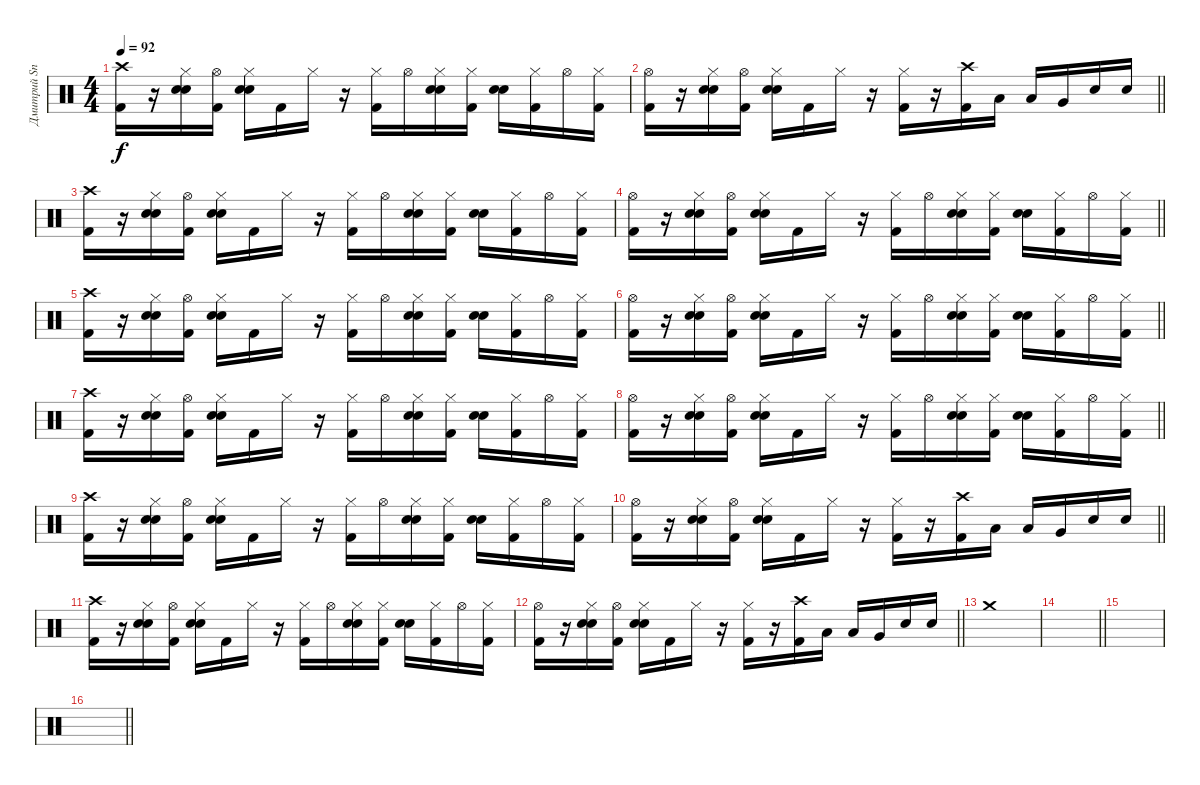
\track ("Дмитрий Snake Хакимов" "Дмитрий Sn") {instrument percussion}
\staff {score}
\articulation defaults
\ts (4 4)
\tempo 92
\clef neutral
\ks c
("Crash high (hit)" "Kick (hit) 2").16{dy f} r.16 ("Hi-Hat (closed)" "Snare (hit) 2" "Electric Snare (hit)").16 ("Hi-Hat (open)" "Kick (hit) 2").16 ("Hi-Hat (closed)" "Snare (hit) 2" "Electric Snare (hit)").16 "Kick (hit) 2".16 "Hi-Hat (closed)".16 r.16 ("Hi-Hat (closed)" "Kick (hit) 2").16 "Hi-Hat (open)".16 ("Hi-Hat (closed)" "Snare (hit) 2" "Electric Snare (hit)").16 ("Hi-Hat (closed)" "Kick (hit) 2").16 ("Snare (hit) 2" "Electric Snare (hit)").16 ("Hi-Hat (closed)" "Kick (hit) 2").16 "Hi-Hat (open)".16 ("Hi-Hat (closed)" "Kick (hit) 2").16 |
\barLineRight lightlight
("Hi-Hat (open)" "Kick (hit) 2").16 r.16 ("Hi-Hat (closed)" "Snare (hit) 2" "Electric Snare (hit)").16 ("Hi-Hat (open)" "Kick (hit) 2").16 ("Hi-Hat (closed)" "Snare (hit) 2" "Electric Snare (hit)").16 "Kick (hit) 2".16 "Hi-Hat (closed)".16 r.16 ("Hi-Hat (closed)" "Kick (hit) 2").16 r.16 ("Crash high (hit)" "Kick (hit) 2").16 "Low Tom (hit)".16 "Low Tom (hit)".16 "Very Low Tom (hit)".16 "Electric Snare (hit)".16 "Electric Snare (hit)".16 |
("Crash high (hit)" "Kick (hit) 2").16 r.16 ("Hi-Hat (closed)" "Snare (hit) 2" "Electric Snare (hit)").16 ("Hi-Hat (open)" "Kick (hit) 2").16 ("Hi-Hat (closed)" "Snare (hit) 2" "Electric Snare (hit)").16 "Kick (hit) 2".16 "Hi-Hat (closed)".16 r.16 ("Hi-Hat (closed)" "Kick (hit) 2").16 "Hi-Hat (open)".16 ("Hi-Hat (closed)" "Snare (hit) 2" "Electric Snare (hit)").16 ("Hi-Hat (closed)" "Kick (hit) 2").16 ("Snare (hit) 2" "Electric Snare (hit)").16 ("Hi-Hat (closed)" "Kick (hit) 2").16 "Hi-Hat (open)".16 ("Hi-Hat (closed)" "Kick (hit) 2").16 |
\barLineRight lightlight
("Hi-Hat (open)" "Kick (hit) 2").16 r.16 ("Hi-Hat (closed)" "Snare (hit) 2" "Electric Snare (hit)").16 ("Hi-Hat (open)" "Kick (hit) 2").16 ("Hi-Hat (closed)" "Snare (hit) 2" "Electric Snare (hit)").16 "Kick (hit) 2".16 "Hi-Hat (closed)".16 r.16 ("Hi-Hat (closed)" "Kick (hit) 2").16 "Hi-Hat (open)".16 ("Hi-Hat (closed)" "Snare (hit) 2" "Electric Snare (hit)").16 ("Hi-Hat (closed)" "Kick (hit) 2").16 ("Snare (hit) 2" "Electric Snare (hit)").16 ("Hi-Hat (closed)" "Kick (hit) 2").16 "Hi-Hat (open)".16 ("Hi-Hat (closed)" "Kick (hit) 2").16 |
\section ("" "")
("Crash high (hit)" "Kick (hit) 2").16 r.16 ("Hi-Hat (closed)" "Snare (hit) 2" "Electric Snare (hit)").16 ("Hi-Hat (open)" "Kick (hit) 2").16 ("Hi-Hat (closed)" "Snare (hit) 2" "Electric Snare (hit)").16 "Kick (hit) 2".16 "Hi-Hat (closed)".16 r.16 ("Hi-Hat (closed)" "Kick (hit) 2").16 "Hi-Hat (open)".16 ("Hi-Hat (closed)" "Snare (hit) 2" "Electric Snare (hit)").16 ("Hi-Hat (closed)" "Kick (hit) 2").16 ("Snare (hit) 2" "Electric Snare (hit)").16 ("Hi-Hat (closed)" "Kick (hit) 2").16 "Hi-Hat (open)".16 ("Hi-Hat (closed)" "Kick (hit) 2").16 |
\barLineRight lightlight
("Hi-Hat (open)" "Kick (hit) 2").16 r.16 ("Hi-Hat (closed)" "Snare (hit) 2" "Electric Snare (hit)").16 ("Hi-Hat (open)" "Kick (hit) 2").16 ("Hi-Hat (closed)" "Snare (hit) 2" "Electric Snare (hit)").16 "Kick (hit) 2".16 "Hi-Hat (closed)".16 r.16 ("Hi-Hat (closed)" "Kick (hit) 2").16 "Hi-Hat (open)".16 ("Hi-Hat (closed)" "Snare (hit) 2" "Electric Snare (hit)").16 ("Hi-Hat (closed)" "Kick (hit) 2").16 ("Snare (hit) 2" "Electric Snare (hit)").16 ("Hi-Hat (closed)" "Kick (hit) 2").16 "Hi-Hat (open)".16 ("Hi-Hat (closed)" "Kick (hit) 2").16 |
("Crash high (hit)" "Kick (hit) 2").16 r.16 ("Hi-Hat (closed)" "Snare (hit) 2" "Electric Snare (hit)").16 ("Hi-Hat (open)" "Kick (hit) 2").16 ("Hi-Hat (closed)" "Snare (hit) 2" "Electric Snare (hit)").16 "Kick (hit) 2".16 "Hi-Hat (closed)".16 r.16 ("Hi-Hat (closed)" "Kick (hit) 2").16 "Hi-Hat (open)".16 ("Hi-Hat (closed)" "Snare (hit) 2" "Electric Snare (hit)").16 ("Hi-Hat (closed)" "Kick (hit) 2").16 ("Snare (hit) 2" "Electric Snare (hit)").16 ("Hi-Hat (closed)" "Kick (hit) 2").16 "Hi-Hat (open)".16 ("Hi-Hat (closed)" "Kick (hit) 2").16 |
\barLineRight lightlight
("Hi-Hat (open)" "Kick (hit) 2").16 r.16 ("Hi-Hat (closed)" "Snare (hit) 2" "Electric Snare (hit)").16 ("Hi-Hat (open)" "Kick (hit) 2").16 ("Hi-Hat (closed)" "Snare (hit) 2" "Electric Snare (hit)").16 "Kick (hit) 2".16 "Hi-Hat (closed)".16 r.16 ("Hi-Hat (closed)" "Kick (hit) 2").16 "Hi-Hat (open)".16 ("Hi-Hat (closed)" "Snare (hit) 2" "Electric Snare (hit)").16 ("Hi-Hat (closed)" "Kick (hit) 2").16 ("Snare (hit) 2" "Electric Snare (hit)").16 ("Hi-Hat (closed)" "Kick (hit) 2").16 "Hi-Hat (open)".16 ("Hi-Hat (closed)" "Kick (hit) 2").16 |
("Crash high (hit)" "Kick (hit) 2").16 r.16 ("Hi-Hat (closed)" "Snare (hit) 2" "Electric Snare (hit)").16 ("Hi-Hat (open)" "Kick (hit) 2").16 ("Hi-Hat (closed)" "Snare (hit) 2" "Electric Snare (hit)").16 "Kick (hit) 2".16 "Hi-Hat (closed)".16 r.16 ("Hi-Hat (closed)" "Kick (hit) 2").16 "Hi-Hat (open)".16 ("Hi-Hat (closed)" "Snare (hit) 2" "Electric Snare (hit)").16 ("Hi-Hat (closed)" "Kick (hit) 2").16 ("Snare (hit) 2" "Electric Snare (hit)").16 ("Hi-Hat (closed)" "Kick (hit) 2").16 "Hi-Hat (open)".16 ("Hi-Hat (closed)" "Kick (hit) 2").16 |
\barLineRight lightlight
("Hi-Hat (open)" "Kick (hit) 2").16 r.16 ("Hi-Hat (closed)" "Snare (hit) 2" "Electric Snare (hit)").16 ("Hi-Hat (open)" "Kick (hit) 2").16 ("Hi-Hat (closed)" "Snare (hit) 2" "Electric Snare (hit)").16 "Kick (hit) 2".16 "Hi-Hat (closed)".16 r.16 ("Hi-Hat (closed)" "Kick (hit) 2").16 r.16 ("Crash high (hit)" "Kick (hit) 2").16 "Low Tom (hit)".16 "Low Tom (hit)".16 "Very Low Tom (hit)".16 "Electric Snare (hit)".16 "Electric Snare (hit)".16 |
("Crash high (hit)" "Kick (hit) 2").16 r.16 ("Hi-Hat (closed)" "Snare (hit) 2" "Electric Snare (hit)").16 ("Hi-Hat (open)" "Kick (hit) 2").16 ("Hi-Hat (closed)" "Snare (hit) 2" "Electric Snare (hit)").16 "Kick (hit) 2".16 "Hi-Hat (closed)".16 r.16 ("Hi-Hat (closed)" "Kick (hit) 2").16 "Hi-Hat (open)".16 ("Hi-Hat (closed)" "Snare (hit) 2" "Electric Snare (hit)").16 ("Hi-Hat (closed)" "Kick (hit) 2").16 ("Snare (hit) 2" "Electric Snare (hit)").16 ("Hi-Hat (closed)" "Kick (hit) 2").16 "Hi-Hat (open)".16 ("Hi-Hat (closed)" "Kick (hit) 2").16 |
\barLineRight lightlight
("Hi-Hat (open)" "Kick (hit) 2").16 r.16 ("Hi-Hat (closed)" "Snare (hit) 2" "Electric Snare (hit)").16 ("Hi-Hat (open)" "Kick (hit) 2").16 ("Hi-Hat (closed)" "Snare (hit) 2" "Electric Snare (hit)").16 "Kick (hit) 2".16 "Hi-Hat (closed)".16 r.16 ("Hi-Hat (closed)" "Kick (hit) 2").16 r.16 ("Crash high (hit)" "Kick (hit) 2").16 "Low Tom (hit)".16 "Low Tom (hit)".16 "Very Low Tom (hit)".16 "Electric Snare (hit)".16 "Electric Snare (hit)".16 |
"Crash medium (hit)".1 |
\barLineRight lightlight
|
|
\barLineRight lightlight
